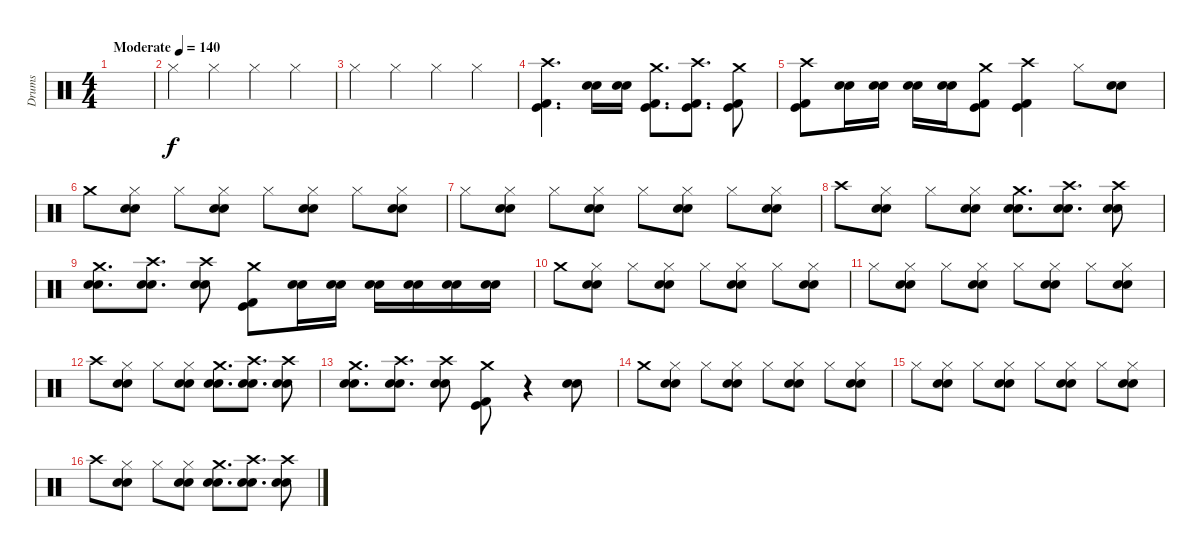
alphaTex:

\track ("Drums" "Drums") {instrument percussion}
\staff {score}
\articulation defaults
\ts (4 4)
\tempo (140 "Moderate")
\clef neutral
\ks c
|
"Hi-Hat (closed)".4 "Hi-Hat (closed)".4 "Hi-Hat (closed)".4 "Hi-Hat (closed)".4 |
"Hi-Hat (closed)".4 "Hi-Hat (closed)".4 "Hi-Hat (closed)".4 "Hi-Hat (closed)".4 |
("Kick (hit) 2" "Kick (hit)" "Crash high (hit)").4{d} ("Electric Snare (hit)" "Snare (hit) 2").16 ("Electric Snare (hit)" "Snare (hit) 2").16 ("Kick (hit) 2" "Kick (hit)" "Crash medium (hit)").8{d} ("Kick (hit) 2" "Kick (hit)" "Crash high (hit)").8{d} ("Kick (hit) 2" "Kick (hit)" "Crash medium (hit)").8 |
("Kick (hit) 2" "Kick (hit)" "Crash high (hit)").8 ("Electric Snare (hit)" "Snare (hit) 2").16 ("Electric Snare (hit)" "Snare (hit) 2").16 ("Electric Snare (hit)" "Snare (hit) 2").16 ("Electric Snare (hit)" "Snare (hit) 2").16 ("Kick (hit) 2" "Kick (hit)" "Crash medium (hit)").8 ("Kick (hit) 2" "Kick (hit)" "Crash high (hit)").4 "Hi-Hat (closed)".8 ("Electric Snare (hit)" "Snare (hit) 2").8 |
"Crash medium (hit)".8 ("Hi-Hat (closed)" "Electric Snare (hit)" "Snare (hit) 2").8 "Hi-Hat (closed)".8 ("Hi-Hat (closed)" "Electric Snare (hit)" "Snare (hit) 2").8 "Hi-Hat (closed)".8 ("Hi-Hat (closed)" "Electric Snare (hit)" "Snare (hit) 2").8 "Hi-Hat (closed)".8 ("Hi-Hat (closed)" "Electric Snare (hit)" "Snare (hit) 2").8 |
"Hi-Hat (closed)".8 ("Hi-Hat (closed)" "Electric Snare (hit)" "Snare (hit) 2").8 "Hi-Hat (closed)".8 ("Hi-Hat (closed)" "Electric Snare (hit)" "Snare (hit) 2").8 "Hi-Hat (closed)".8 ("Hi-Hat (closed)" "Electric Snare (hit)" "Snare (hit) 2").8 "Hi-Hat (closed)".8 ("Hi-Hat (closed)" "Electric Snare (hit)" "Snare (hit) 2").8 |
"Crash high (hit)".8 ("Hi-Hat (closed)" "Electric Snare (hit)" "Snare (hit) 2").8 "Hi-Hat (closed)".8 ("Hi-Hat (closed)" "Electric Snare (hit)" "Snare (hit) 2").8 ("Crash medium (hit)" "Electric Snare (hit)" "Snare (hit) 2").8{d} ("Crash high (hit)" "Electric Snare (hit)" "Snare (hit) 2").8{d} ("Crash high (hit)" "Electric Snare (hit)" "Snare (hit) 2").8 |
("Crash medium (hit)" "Electric Snare (hit)" "Snare (hit) 2").8{d} ("Crash high (hit)" "Electric Snare (hit)" "Snare (hit) 2").8{d} ("Crash high (hit)" "Electric Snare (hit)" "Snare (hit) 2").8 ("Kick (hit) 2" "Kick (hit)" "Crash medium (hit)").8 ("Electric Snare (hit)" "Snare (hit) 2").16 ("Electric Snare (hit)" "Snare (hit) 2").16 ("Electric Snare (hit)" "Snare (hit) 2").16 ("Electric Snare (hit)" "Snare (hit) 2").16 ("Electric Snare (hit)" "Snare (hit) 2").16 ("Electric Snare (hit)" "Snare (hit) 2").16 |
"Crash medium (hit)".8 ("Hi-Hat (closed)" "Electric Snare (hit)" "Snare (hit) 2").8 "Hi-Hat (closed)".8 ("Hi-Hat (closed)" "Electric Snare (hit)" "Snare (hit) 2").8 "Hi-Hat (closed)".8 ("Hi-Hat (closed)" "Electric Snare (hit)" "Snare (hit) 2").8 "Hi-Hat (closed)".8 ("Hi-Hat (closed)" "Electric Snare (hit)" "Snare (hit) 2").8 |
"Hi-Hat (closed)".8 ("Hi-Hat (closed)" "Electric Snare (hit)" "Snare (hit) 2").8 "Hi-Hat (closed)".8 ("Hi-Hat (closed)" "Electric Snare (hit)" "Snare (hit) 2").8 "Hi-Hat (closed)".8 ("Hi-Hat (closed)" "Electric Snare (hit)" "Snare (hit) 2").8 "Hi-Hat (closed)".8 ("Hi-Hat (closed)" "Electric Snare (hit)" "Snare (hit) 2").8 |
"Crash high (hit)".8 ("Hi-Hat (closed)" "Electric Snare (hit)" "Snare (hit) 2").8 "Hi-Hat (closed)".8 ("Hi-Hat (closed)" "Electric Snare (hit)" "Snare (hit) 2").8 ("Crash medium (hit)" "Electric Snare (hit)" "Snare (hit) 2").8{d} ("Crash high (hit)" "Electric Snare (hit)" "Snare (hit) 2").8{d} ("Crash high (hit)" "Electric Snare (hit)" "Snare (hit) 2").8 |
("Crash medium (hit)" "Electric Snare (hit)" "Snare (hit) 2").8{d} ("Crash high (hit)" "Electric Snare (hit)" "Snare (hit) 2").8{d} ("Crash high (hit)" "Electric Snare (hit)" "Snare (hit) 2").8 ("Kick (hit) 2" "Kick (hit)" "Crash medium (hit)").8 r.4 ("Electric Snare (hit)" "Snare (hit) 2").8 |
"Crash medium (hit)".8 ("Hi-Hat (closed)" "Electric Snare (hit)" "Snare (hit) 2").8 "Hi-Hat (closed)".8 ("Hi-Hat (closed)" "Electric Snare (hit)" "Snare (hit) 2").8 "Hi-Hat (closed)".8 ("Hi-Hat (closed)" "Electric Snare (hit)" "Snare (hit) 2").8 "Hi-Hat (closed)".8 ("Hi-Hat (closed)" "Electric Snare (hit)" "Snare (hit) 2").8 |
"Hi-Hat (closed)".8 ("Hi-Hat (closed)" "Electric Snare (hit)" "Snare (hit) 2").8 "Hi-Hat (closed)".8 ("Hi-Hat (closed)" "Electric Snare (hit)" "Snare (hit) 2").8 "Hi-Hat (closed)".8 ("Hi-Hat (closed)" "Electric Snare (hit)" "Snare (hit) 2").8 "Hi-Hat (closed)".8 ("Hi-Hat (closed)" "Electric Snare (hit)" "Snare (hit) 2").8 |
"Crash high (hit)".8 ("Hi-Hat (closed)" "Electric Snare (hit)" "Snare (hit) 2").8 "Hi-Hat (closed)".8 ("Hi-Hat (closed)" "Electric Snare (hit)" "Snare (hit) 2").8 ("Crash medium (hit)" "Electric Snare (hit)" "Snare (hit) 2").8{d} ("Crash high (hit)" "Electric Snare (hit)" "Snare (hit) 2").8{d} ("Crash high (hit)" "Electric Snare (hit)" "Snare (hit) 2").8
